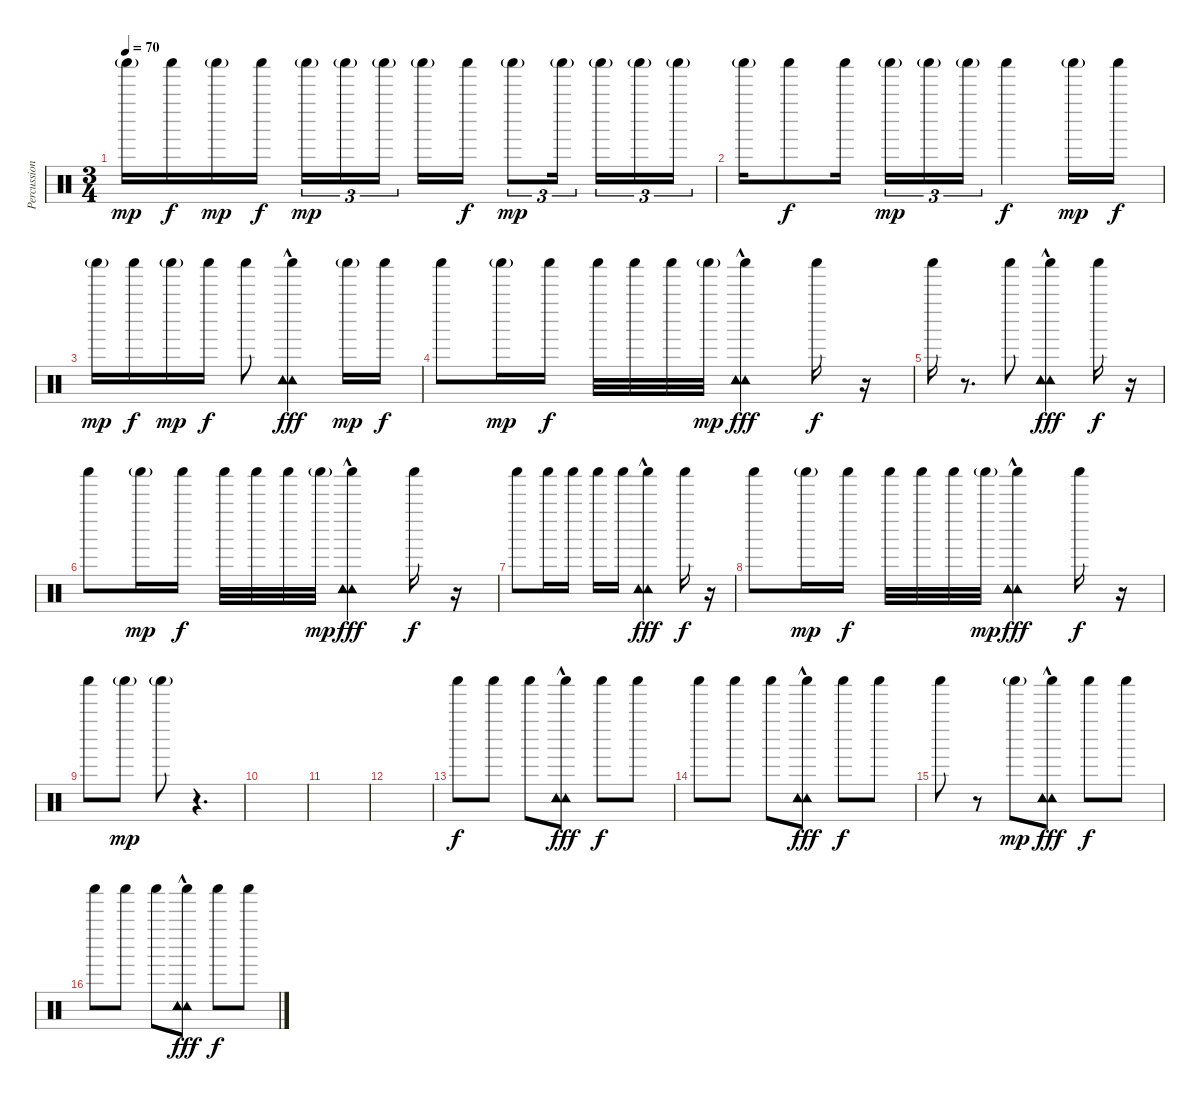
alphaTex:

\track ("Percussion" "Percussion") {instrument percussion}
\staff {score}
\articulation defaults
\ts (3 4)
\tempo 70
\clef neutral
\ks c "Shaker (hit)"{g}.16{dy mp} "Shaker (hit)".16{dy f} "Shaker (hit)"{g}.16{dy mp} "Shaker (hit)".16{dy f} "Shaker (hit)"{g}.16{tu (3 2) dy mp} "Shaker (hit)"{g}.16{tu (3 2)} "Shaker (hit)"{g}.16{tu (3 2) beam splitsecondary} "Shaker (hit)"{g}.16 "Shaker (hit)".16{dy f} "Shaker (hit)"{g}.8{tu (3 2) dy mp} "Shaker (hit)"{g}.16{tu (3 2) beam splitsecondary} "Shaker (hit)"{g}.16{tu (3 2)} "Shaker (hit)"{g}.16{tu (3 2)} "Shaker (hit)"{g}.16{tu (3 2)}
|
"Shaker (hit)"{g}.16 "Shaker (hit)".8{dy f} "Shaker (hit)".16 "Shaker (hit)"{g}.16{tu (3 2) dy mp} "Shaker (hit)"{g}.16{tu (3 2)} "Shaker (hit)"{g}.16{tu (3 2)} "Shaker (hit)".4{dy f} "Shaker (hit)"{g}.16{dy mp} "Shaker (hit)".16{dy f} |
"Shaker (hit)"{g}.16{dy mp} "Shaker (hit)".16{dy f} "Shaker (hit)"{g}.16{dy mp} "Shaker (hit)".16{dy f} "Shaker (hit)".8 ("Shaker (hit)" "Tambourine (hit)"{hac} "Tambourine (hit)"{hac} "Tambourine (hit)"{hac}).4{bd 120 dy fff} "Shaker (hit)"{g}.16{dy mp} "Shaker (hit)".16{dy f} |
"Shaker (hit)".8 "Shaker (hit)"{g}.16{dy mp} "Shaker (hit)".16{dy f} "Shaker (hit)".32 "Shaker (hit)".32 "Shaker (hit)".32 "Shaker (hit)"{g}.32{dy mp} ("Shaker (hit)" "Tambourine (hit)"{hac} "Tambourine (hit)"{hac} "Tambourine (hit)"{hac}).4{bd 120 dy fff} "Shaker (hit)".16{dy f} r.16 |
"Shaker (hit)".16 r.8{d} "Shaker (hit)".8 ("Shaker (hit)" "Tambourine (hit)"{hac} "Tambourine (hit)"{hac} "Tambourine (hit)"{hac}).4{bd 120 dy fff} "Shaker (hit)".16{dy f} r.16 |
"Shaker (hit)".8{volume 4} "Shaker (hit)"{g}.16{dy mp} "Shaker (hit)".16{dy f} "Shaker (hit)".32 "Shaker (hit)".32 "Shaker (hit)".32 "Shaker (hit)"{g}.32{dy mp} ("Shaker (hit)" "Tambourine (hit)"{hac} "Tambourine (hit)"{hac} "Tambourine (hit)"{hac}).4{bd 120 dy fff volume 13} "Shaker (hit)".16{dy f} r.16 |
"Shaker (hit)".8 "Shaker (hit)".16 "Shaker (hit)".16 "Shaker (hit)".16 "Shaker (hit)".16 ("Shaker (hit)" "Tambourine (hit)"{hac} "Tambourine (hit)"{hac} "Tambourine (hit)"{hac}).4{bd 120 dy fff} "Shaker (hit)".16{dy f} r.16 |
"Shaker (hit)".8{volume 4} "Shaker (hit)"{g}.16{dy mp} "Shaker (hit)".16{dy f} "Shaker (hit)".32 "Shaker (hit)".32 "Shaker (hit)".32 "Shaker (hit)"{g}.32{dy mp} ("Shaker (hit)" "Tambourine (hit)"{hac} "Tambourine (hit)"{hac} "Tambourine (hit)"{hac}).4{bd 120 dy fff volume 13} "Shaker (hit)".16{dy f} r.16 |
"Shaker (hit)".8 "Shaker (hit)"{g}.8{dy mp} "Shaker (hit)"{g}.8 r.4{d} |
|
|
|
"Shaker (hit)".8{dy f} "Shaker (hit)".8 "Shaker (hit)".8 ("Shaker (hit)" "Tambourine (hit)"{hac} "Tambourine (hit)"{hac} "Tambourine (hit)"{hac}).8{bd 60 dy fff} "Shaker (hit)".8{dy f} "Shaker (hit)".8 |
"Shaker (hit)".8 "Shaker (hit)".8 "Shaker (hit)".8 ("Shaker (hit)" "Tambourine (hit)"{hac} "Tambourine (hit)"{hac} "Tambourine (hit)"{hac}).8{bd 60 dy fff} "Shaker (hit)".8{dy f} "Shaker (hit)".8 |
"Shaker (hit)".8 r.8 "Shaker (hit)"{g}.8{dy mp} ("Shaker (hit)" "Tambourine (hit)"{hac} "Tambourine (hit)"{hac} "Tambourine (hit)"{hac}).8{bd 60 dy fff} "Shaker (hit)".8{dy f} "Shaker (hit)".8 |
"Shaker (hit)".8 "Shaker (hit)".8 "Shaker (hit)".8 ("Shaker (hit)" "Tambourine (hit)"{hac} "Tambourine (hit)"{hac} "Tambourine (hit)"{hac}).8{bd 60 dy fff} "Shaker (hit)".8{dy f} "Shaker (hit)".8
